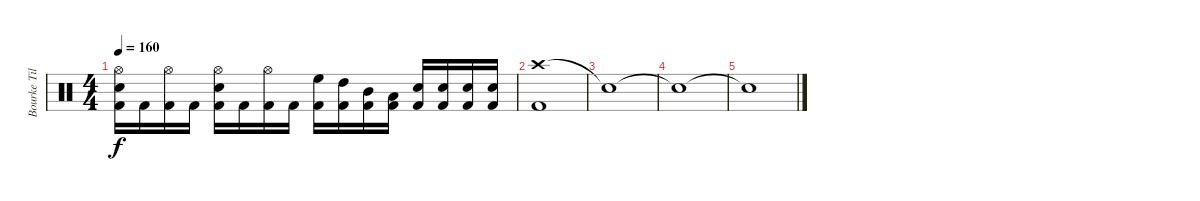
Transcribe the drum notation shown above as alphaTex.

\track ("Bourke Tillman" "Bourke Til") {instrument percussion}
\staff {score}
\articulation defaults
\ts (4 4)
\tempo 160
\clef neutral
\ks c
("Hi-Hat (open)" "Electric Snare (hit)" "Kick (hit) 2").16{dy f} "Kick (hit) 2".16 ("Hi-Hat (open)" "Kick (hit) 2").16 "Kick (hit) 2".16 ("Hi-Hat (open)" "Electric Snare (hit)" "Kick (hit) 2").16 "Kick (hit) 2".16 ("Hi-Hat (open)" "Kick (hit) 2").16 "Kick (hit) 2".16 ("High Floor Tom (hit)" "Kick (hit) 2").16 ("High Tom (hit)" "Kick (hit) 2").16 ("Mid Tom (hit)" "Kick (hit) 2").16 ("Low Tom (hit)" "Kick (hit) 2").16 ("Electric Snare (hit)" "Kick (hit) 2").16 ("Electric Snare (hit)" "Kick (hit) 2").16 ("Electric Snare (hit)" "Kick (hit) 2").16 ("Electric Snare (hit)" "Kick (hit) 2").16 |
("Crash high (hit)" "Kick (hit) 2").1 |
"Snare (hit)"{t}.1 |
"Snare (hit)"{t}.1 |
"Snare (hit)"{t}.1
